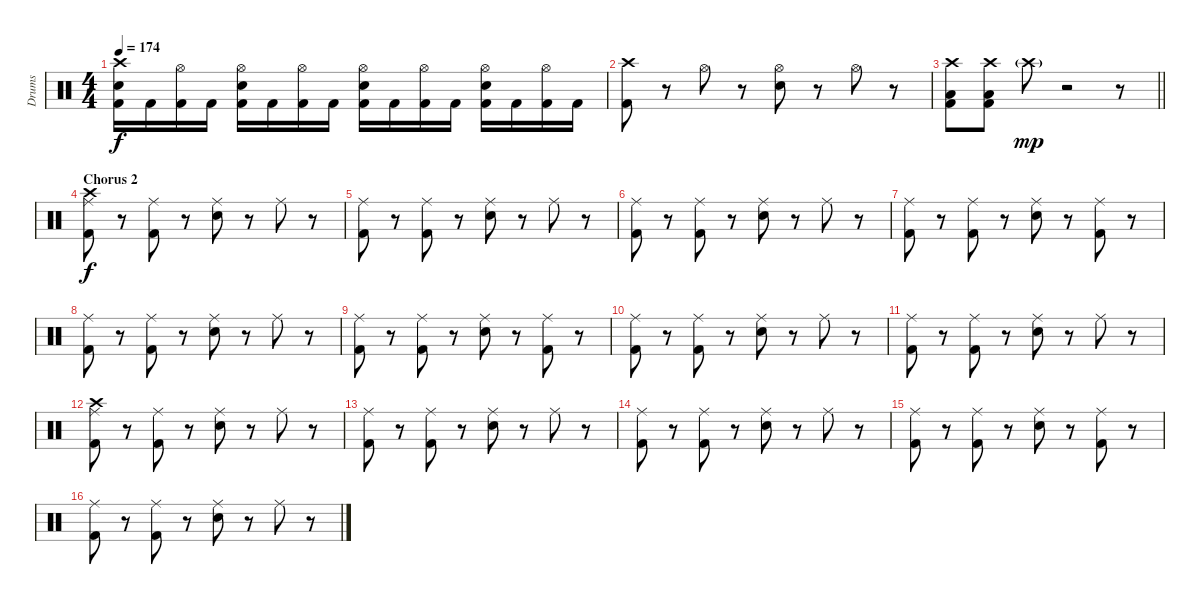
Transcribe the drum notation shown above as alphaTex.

\track ("Drums" "Drums") {instrument percussion}
\staff {score}
\articulation defaults
\ts (4 4)
\tempo 174
\clef neutral
\ks c
("Crash high (hit)" "Snare (hit) 2" "Kick (hit) 2").16{dy f} "Kick (hit) 2".16 ("Hi-Hat (open)" "Kick (hit) 2").16 "Kick (hit) 2".16 ("Hi-Hat (open)" "Snare (hit) 2" "Kick (hit) 2").16 "Kick (hit) 2".16 ("Hi-Hat (open)" "Kick (hit) 2").16 "Kick (hit) 2".16 ("Hi-Hat (open)" "Snare (hit) 2" "Kick (hit) 2").16 "Kick (hit) 2".16 ("Hi-Hat (open)" "Kick (hit) 2").16 "Kick (hit) 2".16 ("Hi-Hat (open)" "Snare (hit) 2" "Kick (hit) 2").16 "Kick (hit) 2".16 ("Hi-Hat (open)" "Kick (hit) 2").16 "Kick (hit) 2".16 |
("Crash high (hit)" "Kick (hit) 2").8 r.8 "Hi-Hat (open)".8 r.8 ("Hi-Hat (open)" "Snare (hit) 2").8 r.8 "Hi-Hat (open)".8 r.8 |
\barLineRight lightlight
("Crash high (hit)" "Low Tom (hit)" "Kick (hit) 2").8 ("Crash high (hit)" "Low Tom (hit)" "Kick (hit) 2").8 "Crash high (hit)"{g}.8{dy mp volume 0} r.2 r.8 |
\section ("" "Chorus 2")
("Ride (middle)" "Crash high (hit)" "Kick (hit) 2").8{dy f volume 16} r.8 ("Ride (middle)" "Kick (hit) 2").8 r.8 ("Ride (middle)" "Snare (hit) 2").8 r.8 "Ride (middle)".8 r.8 |
("Ride (middle)" "Kick (hit) 2").8 r.8 ("Ride (middle)" "Kick (hit) 2").8 r.8 ("Ride (middle)" "Snare (hit) 2").8 r.8 "Ride (middle)".8 r.8 |
("Ride (middle)" "Kick (hit) 2").8 r.8 ("Ride (middle)" "Kick (hit) 2").8 r.8 ("Ride (middle)" "Snare (hit) 2").8 r.8 "Ride (middle)".8 r.8 |
("Ride (middle)" "Kick (hit) 2").8 r.8 ("Ride (middle)" "Kick (hit) 2").8 r.8 ("Ride (middle)" "Snare (hit) 2").8 r.8 ("Ride (middle)" "Kick (hit) 2").8 r.8 |
("Ride (middle)" "Kick (hit) 2").8 r.8 ("Ride (middle)" "Kick (hit) 2").8 r.8 ("Ride (middle)" "Snare (hit) 2").8 r.8 "Ride (middle)".8 r.8 |
("Ride (middle)" "Kick (hit) 2").8 r.8 ("Ride (middle)" "Kick (hit) 2").8 r.8 ("Ride (middle)" "Snare (hit) 2").8 r.8 ("Ride (middle)" "Kick (hit) 2").8 r.8 |
("Ride (middle)" "Kick (hit) 2").8 r.8 ("Ride (middle)" "Kick (hit) 2").8 r.8 ("Ride (middle)" "Snare (hit) 2").8 r.8 "Ride (middle)".8 r.8 |
("Ride (middle)" "Kick (hit) 2").8 r.8 ("Ride (middle)" "Kick (hit) 2").8 r.8 ("Ride (middle)" "Snare (hit) 2").8 r.8 "Ride (middle)".8 r.8 |
("Ride (middle)" "Crash high (hit)" "Kick (hit) 2").8{volume 16} r.8 ("Ride (middle)" "Kick (hit) 2").8 r.8 ("Ride (middle)" "Snare (hit) 2").8 r.8 "Ride (middle)".8 r.8 |
("Ride (middle)" "Kick (hit) 2").8 r.8 ("Ride (middle)" "Kick (hit) 2").8 r.8 ("Ride (middle)" "Snare (hit) 2").8 r.8 "Ride (middle)".8 r.8 |
("Ride (middle)" "Kick (hit) 2").8 r.8 ("Ride (middle)" "Kick (hit) 2").8 r.8 ("Ride (middle)" "Snare (hit) 2").8 r.8 "Ride (middle)".8 r.8 |
("Ride (middle)" "Kick (hit) 2").8 r.8 ("Ride (middle)" "Kick (hit) 2").8 r.8 ("Ride (middle)" "Snare (hit) 2").8 r.8 ("Ride (middle)" "Kick (hit) 2").8 r.8 |
("Ride (middle)" "Kick (hit) 2").8 r.8 ("Ride (middle)" "Kick (hit) 2").8 r.8 ("Ride (middle)" "Snare (hit) 2").8 r.8 "Ride (middle)".8 r.8
